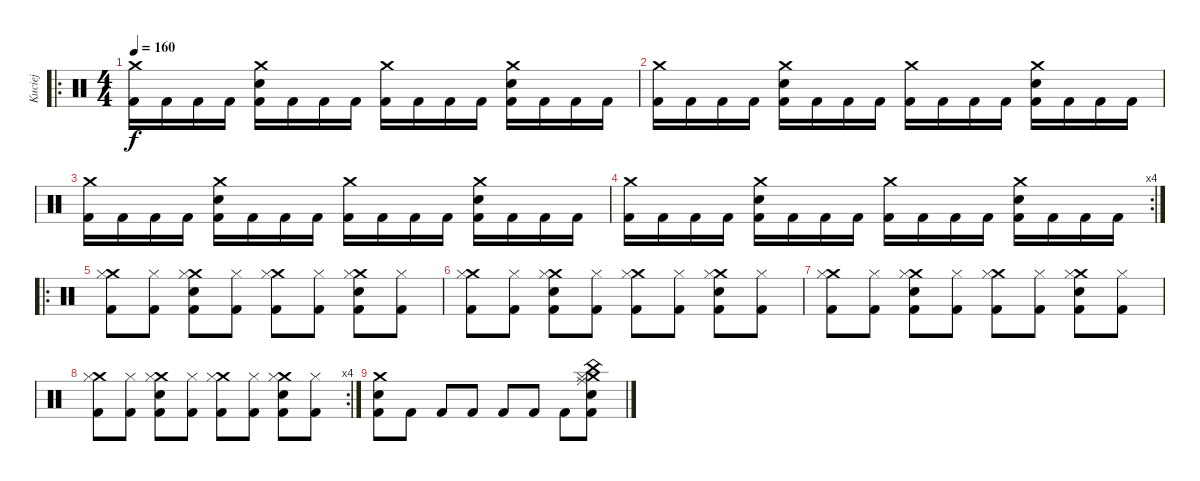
\track ("Kuciej" "Kuciej") {instrument percussion}
\staff {score}
\articulation defaults
\ro
\ts (4 4)
\tempo 160
\clef neutral
\ks c
("Crash medium (hit)" "Kick (hit) 2").16{dy f} "Kick (hit) 2".16 "Kick (hit) 2".16 "Kick (hit) 2".16 ("Crash medium (hit)" "Electric Snare (hit)" "Kick (hit) 2").16 "Kick (hit) 2".16 "Kick (hit) 2".16 "Kick (hit) 2".16 ("Crash medium (hit)" "Kick (hit) 2").16 "Kick (hit) 2".16 "Kick (hit) 2".16 "Kick (hit) 2".16 ("Crash medium (hit)" "Electric Snare (hit)" "Kick (hit) 2").16 "Kick (hit) 2".16 "Kick (hit) 2".16 "Kick (hit) 2".16 |
("Crash medium (hit)" "Kick (hit) 2").16 "Kick (hit) 2".16 "Kick (hit) 2".16 "Kick (hit) 2".16 ("Crash medium (hit)" "Electric Snare (hit)" "Kick (hit) 2").16 "Kick (hit) 2".16 "Kick (hit) 2".16 "Kick (hit) 2".16 ("Crash medium (hit)" "Kick (hit) 2").16 "Kick (hit) 2".16 "Kick (hit) 2".16 "Kick (hit) 2".16 ("Crash medium (hit)" "Electric Snare (hit)" "Kick (hit) 2").16 "Kick (hit) 2".16 "Kick (hit) 2".16 "Kick (hit) 2".16 |
("Crash medium (hit)" "Kick (hit) 2").16 "Kick (hit) 2".16 "Kick (hit) 2".16 "Kick (hit) 2".16 ("Crash medium (hit)" "Electric Snare (hit)" "Kick (hit) 2").16 "Kick (hit) 2".16 "Kick (hit) 2".16 "Kick (hit) 2".16 ("Crash medium (hit)" "Kick (hit) 2").16 "Kick (hit) 2".16 "Kick (hit) 2".16 "Kick (hit) 2".16 ("Crash medium (hit)" "Electric Snare (hit)" "Kick (hit) 2").16 "Kick (hit) 2".16 "Kick (hit) 2".16 "Kick (hit) 2".16 |
\rc 4
("Crash medium (hit)" "Kick (hit) 2").16 "Kick (hit) 2".16 "Kick (hit) 2".16 "Kick (hit) 2".16 ("Crash medium (hit)" "Electric Snare (hit)" "Kick (hit) 2").16 "Kick (hit) 2".16 "Kick (hit) 2".16 "Kick (hit) 2".16 ("Crash medium (hit)" "Kick (hit) 2").16 "Kick (hit) 2".16 "Kick (hit) 2".16 "Kick (hit) 2".16 ("Crash medium (hit)" "Electric Snare (hit)" "Kick (hit) 2").16 "Kick (hit) 2".16 "Kick (hit) 2".16 "Kick (hit) 2".16 |
\ro
("Crash medium (hit)" "Hi-Hat (closed)" "Kick (hit) 2").8 ("Hi-Hat (closed)" "Kick (hit) 2").8 ("Crash medium (hit)" "Hi-Hat (closed)" "Electric Snare (hit)" "Kick (hit) 2").8 ("Hi-Hat (closed)" "Kick (hit) 2").8 ("Crash medium (hit)" "Hi-Hat (closed)" "Kick (hit) 2").8 ("Hi-Hat (closed)" "Kick (hit) 2").8 ("Crash medium (hit)" "Hi-Hat (closed)" "Electric Snare (hit)" "Kick (hit) 2").8 ("Hi-Hat (closed)" "Kick (hit) 2").8 |
("Crash medium (hit)" "Hi-Hat (closed)" "Kick (hit) 2").8 ("Hi-Hat (closed)" "Kick (hit) 2").8 ("Crash medium (hit)" "Hi-Hat (closed)" "Electric Snare (hit)" "Kick (hit) 2").8 ("Hi-Hat (closed)" "Kick (hit) 2").8 ("Crash medium (hit)" "Hi-Hat (closed)" "Kick (hit) 2").8 ("Hi-Hat (closed)" "Kick (hit) 2").8 ("Crash medium (hit)" "Hi-Hat (closed)" "Electric Snare (hit)" "Kick (hit) 2").8 ("Hi-Hat (closed)" "Kick (hit) 2").8 |
("Crash medium (hit)" "Hi-Hat (closed)" "Kick (hit) 2").8 ("Hi-Hat (closed)" "Kick (hit) 2").8 ("Crash medium (hit)" "Hi-Hat (closed)" "Electric Snare (hit)" "Kick (hit) 2").8 ("Hi-Hat (closed)" "Kick (hit) 2").8 ("Crash medium (hit)" "Hi-Hat (closed)" "Kick (hit) 2").8 ("Hi-Hat (closed)" "Kick (hit) 2").8 ("Crash medium (hit)" "Hi-Hat (closed)" "Electric Snare (hit)" "Kick (hit) 2").8 ("Hi-Hat (closed)" "Kick (hit) 2").8 |
\rc 4
("Crash medium (hit)" "Hi-Hat (closed)" "Kick (hit) 2").8 ("Hi-Hat (closed)" "Kick (hit) 2").8 ("Crash medium (hit)" "Hi-Hat (closed)" "Electric Snare (hit)" "Kick (hit) 2").8 ("Hi-Hat (closed)" "Kick (hit) 2").8 ("Crash medium (hit)" "Hi-Hat (closed)" "Kick (hit) 2").8 ("Hi-Hat (closed)" "Kick (hit) 2").8 ("Crash medium (hit)" "Hi-Hat (closed)" "Electric Snare (hit)" "Kick (hit) 2").8 ("Hi-Hat (closed)" "Kick (hit) 2").8 |
("Crash medium (hit)" "Electric Snare (hit)" "Kick (hit) 2").8 "Kick (hit) 2".8 "Kick (hit) 2".8 "Kick (hit) 2".8 "Kick (hit) 2".8 "Kick (hit) 2".8 "Kick (hit) 2".8 ("Ride (middle)" "China (hit)" "Crash medium (hit)" "Hi-Hat (closed)" "Electric Snare (hit)" "Kick (hit) 2").8
